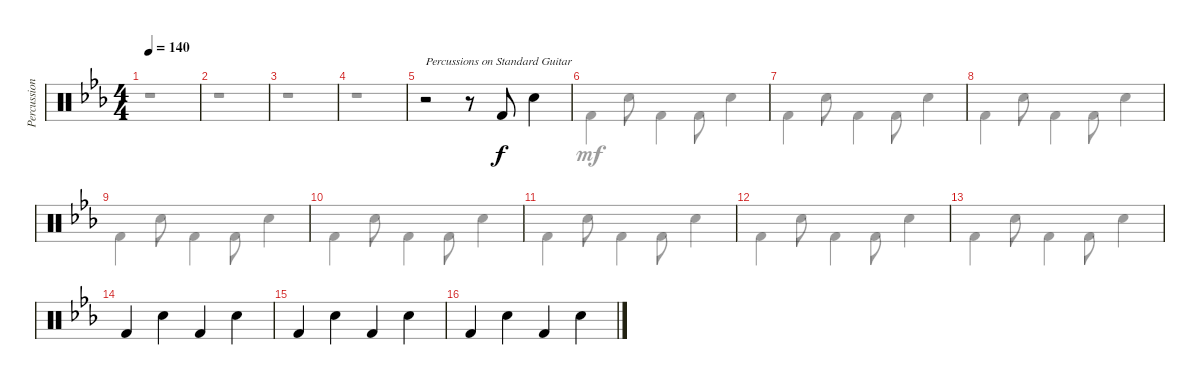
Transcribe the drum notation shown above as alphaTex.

\track ("Percussions" "Percussion") {instrument percussion}
\staff {score}
\articulation defaults
\voice
\ts (4 4)
\tempo 140
\clef neutral
\ks cminor
|
|
|
|
r.2{txt "Percussions on Standard Guitar"} r.8 "Kick (hit) 2".8 "Snare (hit) 2".4 |
|
|
|
|
|
|
|
|
"Kick (hit) 2".4 "Snare (hit) 2".4 "Kick (hit) 2".4 "Snare (hit) 2".4 |
"Kick (hit) 2".4 "Snare (hit) 2".4 "Kick (hit) 2".4 "Snare (hit) 2".4 |
"Kick (hit) 2".4 "Snare (hit) 2".4 "Kick (hit) 2".4 "Snare (hit) 2".4
\voice
\clef neutral
\ottava regular
\simile none
\ks cminor
r.1{dy mf} |
r.1 |
r.1 |
r.1 |
|
"Kick (hit) 2".4 "Snare (hit) 2".8 "Kick (hit) 2".4 "Kick (hit) 2".8 "Snare (hit) 2".4 |
"Kick (hit) 2".4 "Snare (hit) 2".8 "Kick (hit) 2".4 "Kick (hit) 2".8 "Snare (hit) 2".4 |
"Kick (hit) 2".4 "Snare (hit) 2".8 "Kick (hit) 2".4 "Kick (hit) 2".8 "Snare (hit) 2".4 |
"Kick (hit) 2".4 "Snare (hit) 2".8 "Kick (hit) 2".4 "Kick (hit) 2".8 "Snare (hit) 2".4 |
"Kick (hit) 2".4 "Snare (hit) 2".8 "Kick (hit) 2".4 "Kick (hit) 2".8 "Snare (hit) 2".4 |
"Kick (hit) 2".4 "Snare (hit) 2".8 "Kick (hit) 2".4 "Kick (hit) 2".8 "Snare (hit) 2".4 |
"Kick (hit) 2".4 "Snare (hit) 2".8 "Kick (hit) 2".4 "Kick (hit) 2".8 "Snare (hit) 2".4 |
"Kick (hit) 2".4 "Snare (hit) 2".8 "Kick (hit) 2".4 "Kick (hit) 2".8 "Snare (hit) 2".4 |
|
|
